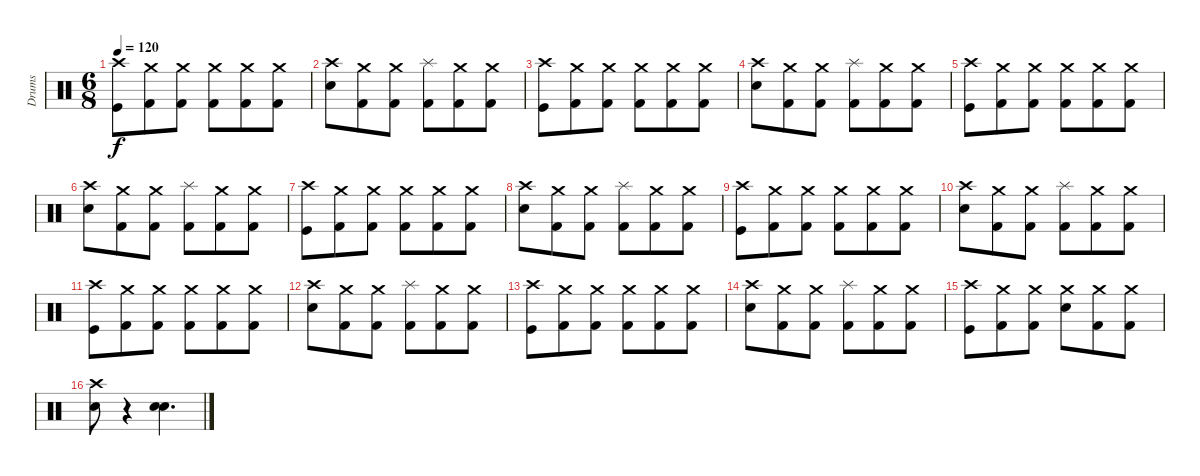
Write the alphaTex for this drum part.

\track ("Drums" "Drums") {instrument percussion}
\staff {score}
\articulation defaults
\ts (6 8)
\tempo 120
\clef neutral
\ks c
("Crash high (hit)" "Kick (hit)").8{dy f} ("Crash medium (hit)" "Kick (hit) 2").8 ("Crash medium (hit)" "Kick (hit) 2").8 ("Crash medium (hit)" "Kick (hit) 2").8 ("Crash medium (hit)" "Kick (hit) 2").8 ("Crash medium (hit)" "Kick (hit) 2").8 |
("Crash high (hit)" "Electric Snare (hit)").8 ("Crash medium (hit)" "Kick (hit) 2").8 ("Crash medium (hit)" "Kick (hit) 2").8 ("Splash (hit)" "Kick (hit) 2").8 ("Crash medium (hit)" "Kick (hit) 2").8 ("Crash medium (hit)" "Kick (hit) 2").8 |
("Crash high (hit)" "Kick (hit)").8 ("Crash medium (hit)" "Kick (hit) 2").8 ("Crash medium (hit)" "Kick (hit) 2").8 ("Crash medium (hit)" "Kick (hit) 2").8 ("Crash medium (hit)" "Kick (hit) 2").8 ("Crash medium (hit)" "Kick (hit) 2").8 |
("Crash high (hit)" "Electric Snare (hit)").8 ("Crash medium (hit)" "Kick (hit) 2").8 ("Crash medium (hit)" "Kick (hit) 2").8 ("Splash (hit)" "Kick (hit) 2").8 ("Crash medium (hit)" "Kick (hit) 2").8 ("Crash medium (hit)" "Kick (hit) 2").8 |
("Crash high (hit)" "Kick (hit)").8 ("Crash medium (hit)" "Kick (hit) 2").8 ("Crash medium (hit)" "Kick (hit) 2").8 ("Crash medium (hit)" "Kick (hit) 2").8 ("Crash medium (hit)" "Kick (hit) 2").8 ("Crash medium (hit)" "Kick (hit) 2").8 |
("Crash high (hit)" "Electric Snare (hit)").8 ("Crash medium (hit)" "Kick (hit) 2").8 ("Crash medium (hit)" "Kick (hit) 2").8 ("Splash (hit)" "Kick (hit) 2").8 ("Crash medium (hit)" "Kick (hit) 2").8 ("Crash medium (hit)" "Kick (hit) 2").8 |
("Crash high (hit)" "Kick (hit)").8 ("Crash medium (hit)" "Kick (hit) 2").8 ("Crash medium (hit)" "Kick (hit) 2").8 ("Crash medium (hit)" "Kick (hit) 2").8 ("Crash medium (hit)" "Kick (hit) 2").8 ("Crash medium (hit)" "Kick (hit) 2").8 |
("Crash high (hit)" "Electric Snare (hit)").8 ("Crash medium (hit)" "Kick (hit) 2").8 ("Crash medium (hit)" "Kick (hit) 2").8 ("Splash (hit)" "Kick (hit) 2").8 ("Crash medium (hit)" "Kick (hit) 2").8 ("Crash medium (hit)" "Kick (hit) 2").8 |
("Crash high (hit)" "Kick (hit)").8 ("Crash medium (hit)" "Kick (hit) 2").8 ("Crash medium (hit)" "Kick (hit) 2").8 ("Crash medium (hit)" "Kick (hit) 2").8 ("Crash medium (hit)" "Kick (hit) 2").8 ("Crash medium (hit)" "Kick (hit) 2").8 |
("Crash high (hit)" "Electric Snare (hit)").8 ("Crash medium (hit)" "Kick (hit) 2").8 ("Crash medium (hit)" "Kick (hit) 2").8 ("Splash (hit)" "Kick (hit) 2").8 ("Crash medium (hit)" "Kick (hit) 2").8 ("Crash medium (hit)" "Kick (hit) 2").8 |
("Crash high (hit)" "Kick (hit)").8 ("Crash medium (hit)" "Kick (hit) 2").8 ("Crash medium (hit)" "Kick (hit) 2").8 ("Crash medium (hit)" "Kick (hit) 2").8 ("Crash medium (hit)" "Kick (hit) 2").8 ("Crash medium (hit)" "Kick (hit) 2").8 |
("Crash high (hit)" "Electric Snare (hit)").8 ("Crash medium (hit)" "Kick (hit) 2").8 ("Crash medium (hit)" "Kick (hit) 2").8 ("Splash (hit)" "Kick (hit) 2").8 ("Crash medium (hit)" "Kick (hit) 2").8 ("Crash medium (hit)" "Kick (hit) 2").8 |
("Crash high (hit)" "Kick (hit)").8 ("Crash medium (hit)" "Kick (hit) 2").8 ("Crash medium (hit)" "Kick (hit) 2").8 ("Crash medium (hit)" "Kick (hit) 2").8 ("Crash medium (hit)" "Kick (hit) 2").8 ("Crash medium (hit)" "Kick (hit) 2").8 |
("Crash high (hit)" "Electric Snare (hit)").8 ("Crash medium (hit)" "Kick (hit) 2").8 ("Crash medium (hit)" "Kick (hit) 2").8 ("Splash (hit)" "Kick (hit) 2").8 ("Crash medium (hit)" "Kick (hit) 2").8 ("Crash medium (hit)" "Kick (hit) 2").8 |
("Crash high (hit)" "Kick (hit)").8 ("Crash medium (hit)" "Kick (hit) 2").8 ("Crash medium (hit)" "Kick (hit) 2").8 ("Crash medium (hit)" "Electric Snare (hit)").8 ("Crash medium (hit)" "Kick (hit) 2").8 ("Crash medium (hit)" "Kick (hit) 2").8 |
("Crash high (hit)" "Electric Snare (hit)").8 r.4 ("Electric Snare (hit)" "Electric Snare (hit)").4{d bd 60}
